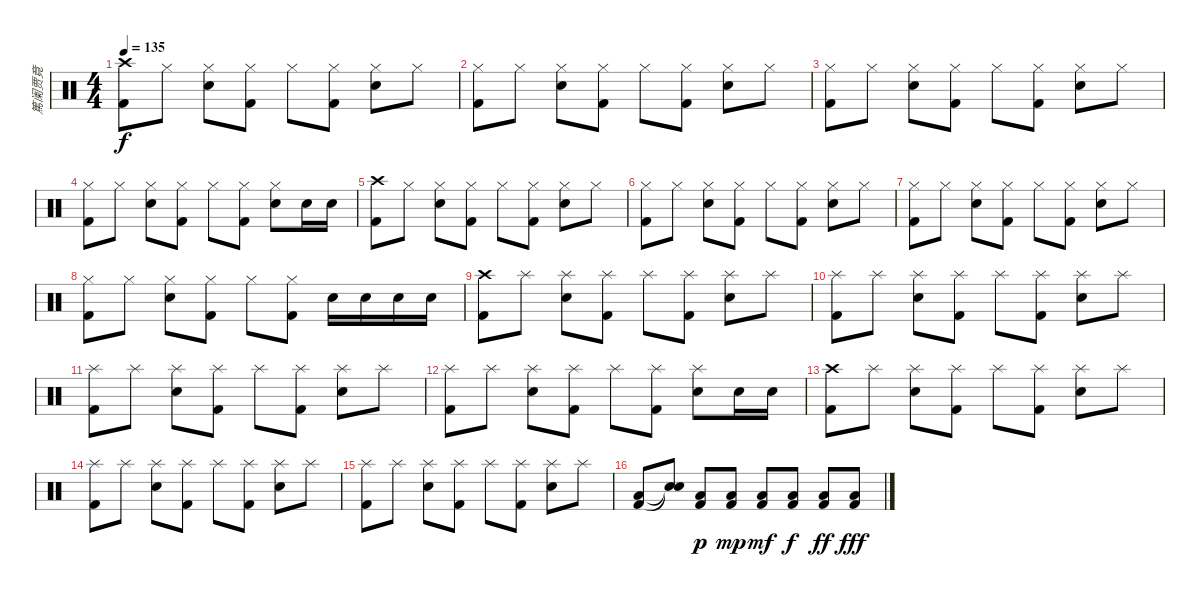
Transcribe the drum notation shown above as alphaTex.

\track ("篤阑贾竟" "篤阑贾竟") {instrument percussion}
\staff {score}
\articulation defaults
\ts (4 4)
\tempo 135
\clef neutral
\ks c
("Crash high (hit)" "Kick (hit) 2").8{dy f} "Hi-Hat (closed)".8 ("Hi-Hat (closed)" "Electric Snare (hit)").8 ("Hi-Hat (closed)" "Kick (hit) 2").8 "Hi-Hat (closed)".8 ("Hi-Hat (closed)" "Kick (hit) 2").8 ("Hi-Hat (closed)" "Electric Snare (hit)").8 "Hi-Hat (closed)".8 |
("Hi-Hat (closed)" "Kick (hit) 2").8 "Hi-Hat (closed)".8 ("Hi-Hat (closed)" "Electric Snare (hit)").8 ("Hi-Hat (closed)" "Kick (hit) 2").8 "Hi-Hat (closed)".8 ("Hi-Hat (closed)" "Kick (hit) 2").8 ("Hi-Hat (closed)" "Electric Snare (hit)").8 "Hi-Hat (closed)".8 |
("Hi-Hat (closed)" "Kick (hit) 2").8 "Hi-Hat (closed)".8 ("Hi-Hat (closed)" "Electric Snare (hit)").8 ("Hi-Hat (closed)" "Kick (hit) 2").8 "Hi-Hat (closed)".8 ("Hi-Hat (closed)" "Kick (hit) 2").8 ("Hi-Hat (closed)" "Electric Snare (hit)").8 "Hi-Hat (closed)".8 |
("Hi-Hat (closed)" "Kick (hit) 2").8 "Hi-Hat (closed)".8 ("Hi-Hat (closed)" "Electric Snare (hit)").8 ("Hi-Hat (closed)" "Kick (hit) 2").8 "Hi-Hat (closed)".8 ("Hi-Hat (closed)" "Kick (hit) 2").8 ("Hi-Hat (closed)" "Electric Snare (hit)").8 "Electric Snare (hit)".16 "Electric Snare (hit)".16 |
("Crash high (hit)" "Kick (hit) 2").8 "Hi-Hat (closed)".8 ("Hi-Hat (closed)" "Electric Snare (hit)").8 ("Hi-Hat (closed)" "Kick (hit) 2").8 "Hi-Hat (closed)".8 ("Hi-Hat (closed)" "Kick (hit) 2").8 ("Hi-Hat (closed)" "Electric Snare (hit)").8 "Hi-Hat (closed)".8 |
("Hi-Hat (closed)" "Kick (hit) 2").8 "Hi-Hat (closed)".8 ("Hi-Hat (closed)" "Electric Snare (hit)").8 ("Hi-Hat (closed)" "Kick (hit) 2").8 "Hi-Hat (closed)".8 ("Hi-Hat (closed)" "Kick (hit) 2").8 ("Hi-Hat (closed)" "Electric Snare (hit)").8 "Hi-Hat (closed)".8 |
("Hi-Hat (closed)" "Kick (hit) 2").8 "Hi-Hat (closed)".8 ("Hi-Hat (closed)" "Electric Snare (hit)").8 ("Hi-Hat (closed)" "Kick (hit) 2").8 "Hi-Hat (closed)".8 ("Hi-Hat (closed)" "Kick (hit) 2").8 ("Hi-Hat (closed)" "Electric Snare (hit)").8 "Hi-Hat (closed)".8 |
("Hi-Hat (closed)" "Kick (hit) 2").8 "Hi-Hat (closed)".8 ("Hi-Hat (closed)" "Electric Snare (hit)").8 ("Hi-Hat (closed)" "Kick (hit) 2").8 "Hi-Hat (closed)".8 ("Hi-Hat (closed)" "Kick (hit) 2").8 "Electric Snare (hit)".16 "Electric Snare (hit)".16 "Electric Snare (hit)".16 "Electric Snare (hit)".16 |
("Crash high (hit)" "Kick (hit) 2").8 "Splash (hit)".8 ("Splash (hit)" "Electric Snare (hit)").8 ("Splash (hit)" "Kick (hit) 2").8 "Splash (hit)".8 ("Splash (hit)" "Kick (hit) 2").8 ("Splash (hit)" "Electric Snare (hit)").8 "Splash (hit)".8 |
("Splash (hit)" "Kick (hit) 2").8 "Splash (hit)".8 ("Splash (hit)" "Electric Snare (hit)").8 ("Splash (hit)" "Kick (hit) 2").8 "Splash (hit)".8 ("Splash (hit)" "Kick (hit) 2").8 ("Splash (hit)" "Electric Snare (hit)").8 "Splash (hit)".8 |
("Splash (hit)" "Kick (hit) 2").8 "Splash (hit)".8 ("Splash (hit)" "Electric Snare (hit)").8 ("Splash (hit)" "Kick (hit) 2").8 "Splash (hit)".8 ("Splash (hit)" "Kick (hit) 2").8 ("Splash (hit)" "Electric Snare (hit)").8 "Splash (hit)".8 |
("Splash (hit)" "Kick (hit) 2").8 "Splash (hit)".8 ("Splash (hit)" "Electric Snare (hit)").8 ("Splash (hit)" "Kick (hit) 2").8 "Splash (hit)".8 ("Splash (hit)" "Kick (hit) 2").8 ("Splash (hit)" "Electric Snare (hit)").8 "Electric Snare (hit)".16 "Electric Snare (hit)".16 |
("Crash high (hit)" "Kick (hit) 2").8 "Splash (hit)".8 ("Splash (hit)" "Electric Snare (hit)").8 ("Splash (hit)" "Kick (hit) 2").8 "Splash (hit)".8 ("Splash (hit)" "Kick (hit) 2").8 ("Splash (hit)" "Electric Snare (hit)").8 "Splash (hit)".8 |
("Splash (hit)" "Kick (hit) 2").8 "Splash (hit)".8 ("Splash (hit)" "Electric Snare (hit)").8 ("Splash (hit)" "Kick (hit) 2").8 "Splash (hit)".8 ("Splash (hit)" "Kick (hit) 2").8 ("Splash (hit)" "Electric Snare (hit)").8 "Splash (hit)".8 |
("Splash (hit)" "Kick (hit) 2").8 "Splash (hit)".8 ("Splash (hit)" "Electric Snare (hit)").8 ("Splash (hit)" "Kick (hit) 2").8 "Splash (hit)".8 ("Splash (hit)" "Kick (hit) 2").8 ("Splash (hit)" "Electric Snare (hit)").8 "Splash (hit)".8 |
("Low Tom (hit)" "Kick (hit) 2").8 ("Snare (hit)"{t} "Snare (hit)"{t}).8 ("Low Tom (hit)" "Kick (hit) 2").8{dy p} ("Low Tom (hit)" "Kick (hit) 2").8{dy mp} ("Low Tom (hit)" "Kick (hit) 2").8{dy mf} ("Low Tom (hit)" "Kick (hit) 2").8{dy f} ("Low Tom (hit)" "Kick (hit) 2").8{dy ff} ("Low Tom (hit)" "Kick (hit) 2").8{dy fff}
